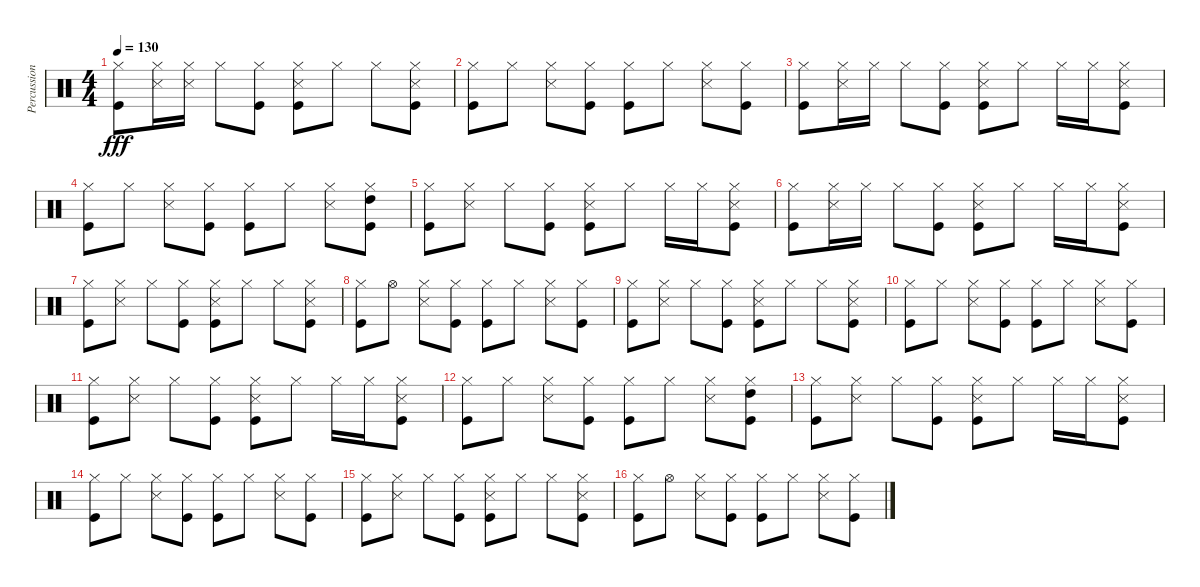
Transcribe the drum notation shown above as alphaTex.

\track ("Percussions 2" "Percussion") {instrument percussion}
\staff {score}
\articulation defaults
\ts (4 4)
\tempo 130
\clef neutral
\ks c
("Kick (hit)" "Hi-Hat (closed)").8{dy fff} ("Snare (side stick) 3" "Hi-Hat (closed)").16 ("Snare (side stick) 3" "Hi-Hat (closed)").16 "Hi-Hat (closed)".8 ("Kick (hit)" "Hi-Hat (closed)").8 ("Kick (hit)" "Snare (side stick) 3" "Hi-Hat (closed)").8 "Hi-Hat (closed)".8 "Hi-Hat (closed)".8 ("Kick (hit)" "Snare (side stick) 3" "Hi-Hat (closed)").8 |
("Kick (hit)" "Hi-Hat (closed)").8 "Hi-Hat (closed)".8 ("Snare (side stick) 3" "Hi-Hat (closed)").8 ("Kick (hit)" "Hi-Hat (closed)").8 ("Kick (hit)" "Hi-Hat (closed)").8 "Hi-Hat (closed)".8 ("Snare (side stick) 3" "Hi-Hat (closed)").8 ("Kick (hit)" "Hi-Hat (closed)").8 |
("Kick (hit)" "Hi-Hat (closed)").8 ("Snare (side stick) 3" "Hi-Hat (closed)").16 "Hi-Hat (closed)".16 "Hi-Hat (closed)".8 ("Kick (hit)" "Hi-Hat (closed)").8 ("Kick (hit)" "Snare (side stick) 3" "Hi-Hat (closed)").8 "Hi-Hat (closed)".8 "Hi-Hat (closed)".16 "Hi-Hat (closed)".16 ("Kick (hit)" "Snare (side stick) 3" "Hi-Hat (closed)").8 |
("Kick (hit)" "Hi-Hat (closed)").8 "Hi-Hat (closed)".8 ("Snare (side stick) 3" "Hi-Hat (closed)").8 ("Kick (hit)" "Hi-Hat (closed)").8 ("Kick (hit)" "Hi-Hat (closed)").8 "Hi-Hat (closed)".8 ("Snare (side stick) 3" "Hi-Hat (closed)").8 ("Kick (hit)" "Hi-Hat (closed)" "High Tom (hit)").8 |
("Kick (hit)" "Hi-Hat (closed)").8 ("Snare (side stick) 3" "Hi-Hat (closed)").8 "Hi-Hat (closed)".8 ("Kick (hit)" "Hi-Hat (closed)").8 ("Kick (hit)" "Snare (side stick) 3" "Hi-Hat (closed)").8 "Hi-Hat (closed)".8 "Hi-Hat (closed)".16 "Hi-Hat (closed)".16 ("Kick (hit)" "Snare (side stick) 3" "Hi-Hat (closed)").8 |
("Kick (hit)" "Hi-Hat (closed)").8 ("Snare (side stick) 3" "Hi-Hat (closed)").16 "Hi-Hat (closed)".16 "Hi-Hat (closed)".8 ("Kick (hit)" "Hi-Hat (closed)").8 ("Kick (hit)" "Snare (side stick) 3" "Hi-Hat (closed)").8 "Hi-Hat (closed)".8 "Hi-Hat (closed)".16 "Hi-Hat (closed)".16 ("Kick (hit)" "Snare (side stick) 3" "Hi-Hat (closed)").8 |
("Kick (hit)" "Hi-Hat (closed)").8 ("Snare (side stick) 3" "Hi-Hat (closed)").8 "Hi-Hat (closed)".8 ("Kick (hit)" "Hi-Hat (closed)").8 ("Kick (hit)" "Snare (side stick) 3" "Hi-Hat (closed)").8 "Hi-Hat (closed)".8 "Hi-Hat (closed)".8 ("Kick (hit)" "Snare (side stick) 3" "Hi-Hat (closed)").8 |
("Kick (hit)" "Hi-Hat (closed)").8 "Hi-Hat (open)".8 ("Snare (side stick) 3" "Hi-Hat (closed)").8 ("Kick (hit)" "Hi-Hat (closed)").8 ("Kick (hit)" "Hi-Hat (closed)").8 "Hi-Hat (closed)".8 ("Snare (side stick) 3" "Hi-Hat (closed)").8 ("Kick (hit)" "Hi-Hat (closed)").8 |
("Kick (hit)" "Hi-Hat (closed)").8 ("Snare (side stick) 3" "Hi-Hat (closed)").8 "Hi-Hat (closed)".8 ("Kick (hit)" "Hi-Hat (closed)").8 ("Kick (hit)" "Snare (side stick) 3" "Hi-Hat (closed)").8 "Hi-Hat (closed)".8 "Hi-Hat (closed)".8 ("Kick (hit)" "Snare (side stick) 3" "Hi-Hat (closed)").8 |
("Kick (hit)" "Hi-Hat (closed)").8 "Hi-Hat (closed)".8 ("Snare (side stick) 3" "Hi-Hat (closed)").8 ("Kick (hit)" "Hi-Hat (closed)").8 ("Kick (hit)" "Hi-Hat (closed)").8 "Hi-Hat (closed)".8 ("Snare (side stick) 3" "Hi-Hat (closed)").8 ("Kick (hit)" "Hi-Hat (closed)").8 |
("Kick (hit)" "Hi-Hat (closed)").8 ("Snare (side stick) 3" "Hi-Hat (closed)").8 "Hi-Hat (closed)".8 ("Kick (hit)" "Hi-Hat (closed)").8 ("Kick (hit)" "Snare (side stick) 3" "Hi-Hat (closed)").8 "Hi-Hat (closed)".8 "Hi-Hat (closed)".16 "Hi-Hat (closed)".16 ("Kick (hit)" "Snare (side stick) 3" "Hi-Hat (closed)").8 |
("Kick (hit)" "Hi-Hat (closed)").8 "Hi-Hat (closed)".8 ("Snare (side stick) 3" "Hi-Hat (closed)").8 ("Kick (hit)" "Hi-Hat (closed)").8 ("Kick (hit)" "Hi-Hat (closed)").8 "Hi-Hat (closed)".8 ("Snare (side stick) 3" "Hi-Hat (closed)").8 ("Kick (hit)" "Hi-Hat (closed)" "High Tom (hit)").8 |
("Kick (hit)" "Hi-Hat (closed)").8 ("Snare (side stick) 3" "Hi-Hat (closed)").8 "Hi-Hat (closed)".8 ("Kick (hit)" "Hi-Hat (closed)").8 ("Kick (hit)" "Snare (side stick) 3" "Hi-Hat (closed)").8 "Hi-Hat (closed)".8 "Hi-Hat (closed)".16 "Hi-Hat (closed)".16 ("Kick (hit)" "Snare (side stick) 3" "Hi-Hat (closed)").8 |
("Kick (hit)" "Hi-Hat (closed)").8 "Hi-Hat (closed)".8 ("Snare (side stick) 3" "Hi-Hat (closed)").8 ("Kick (hit)" "Hi-Hat (closed)").8 ("Kick (hit)" "Hi-Hat (closed)").8 "Hi-Hat (closed)".8 ("Snare (side stick) 3" "Hi-Hat (closed)").8 ("Kick (hit)" "Hi-Hat (closed)").8 |
("Kick (hit)" "Hi-Hat (closed)").8 ("Snare (side stick) 3" "Hi-Hat (closed)").8 "Hi-Hat (closed)".8 ("Kick (hit)" "Hi-Hat (closed)").8 ("Kick (hit)" "Snare (side stick) 3" "Hi-Hat (closed)").8 "Hi-Hat (closed)".8 "Hi-Hat (closed)".8 ("Kick (hit)" "Snare (side stick) 3" "Hi-Hat (closed)").8 |
("Kick (hit)" "Hi-Hat (closed)").8 "Hi-Hat (open)".8 ("Snare (side stick) 3" "Hi-Hat (closed)").8 ("Kick (hit)" "Hi-Hat (closed)").8 ("Kick (hit)" "Hi-Hat (closed)").8 "Hi-Hat (closed)".8 ("Snare (side stick) 3" "Hi-Hat (closed)").8 ("Kick (hit)" "Hi-Hat (closed)").8
